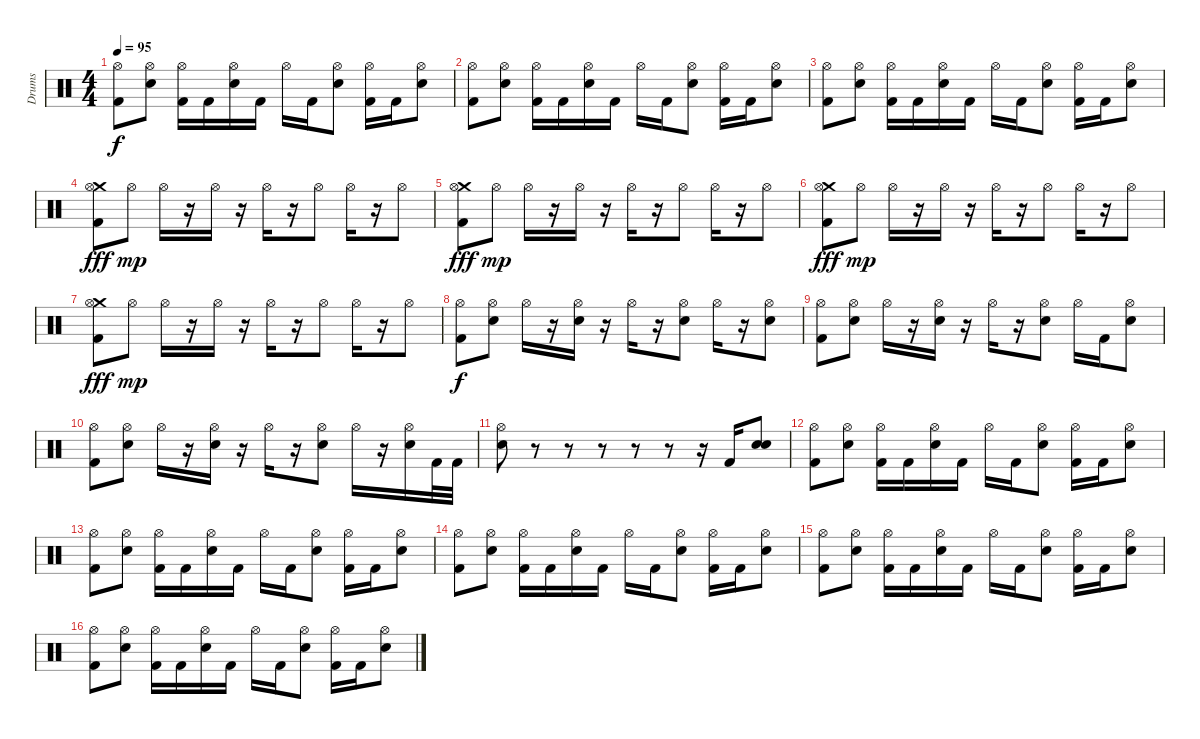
\track ("Drums" "Drums") {instrument percussion}
\staff {score}
\articulation defaults
\ts (4 4)
\tempo 95
\clef neutral
\ks c
("Hi-Hat (open)" "Kick (hit) 2").8{dy f} ("Hi-Hat (open)" "Snare (hit) 2").8 ("Hi-Hat (open)" "Kick (hit) 2").16 "Kick (hit) 2".16 ("Hi-Hat (open)" "Snare (hit) 2").16 "Kick (hit) 2".16 "Hi-Hat (open)".16 "Kick (hit) 2".16 ("Hi-Hat (open)" "Snare (hit) 2").8 ("Hi-Hat (open)" "Kick (hit) 2").16 "Kick (hit) 2".16 ("Hi-Hat (open)" "Snare (hit) 2").8 |
("Hi-Hat (open)" "Kick (hit) 2").8 ("Hi-Hat (open)" "Snare (hit) 2").8 ("Hi-Hat (open)" "Kick (hit) 2").16 "Kick (hit) 2".16 ("Hi-Hat (open)" "Snare (hit) 2").16 "Kick (hit) 2".16 "Hi-Hat (open)".16 "Kick (hit) 2".16 ("Hi-Hat (open)" "Snare (hit) 2").8 ("Hi-Hat (open)" "Kick (hit) 2").16 "Kick (hit) 2".16 ("Hi-Hat (open)" "Snare (hit) 2").8 |
("Hi-Hat (open)" "Kick (hit) 2").8 ("Hi-Hat (open)" "Snare (hit) 2").8 ("Hi-Hat (open)" "Kick (hit) 2").16 "Kick (hit) 2".16 ("Hi-Hat (open)" "Snare (hit) 2").16 "Kick (hit) 2".16 "Hi-Hat (open)".16 "Kick (hit) 2".16 ("Hi-Hat (open)" "Snare (hit) 2").8 ("Hi-Hat (open)" "Kick (hit) 2").16 "Kick (hit) 2".16 ("Hi-Hat (open)" "Snare (hit) 2").8 |
("Crash medium (hit)" "Hi-Hat (open)" "Kick (hit) 2").8{dy fff} "Hi-Hat (open)".8{dy mp} "Hi-Hat (open)".16 r.16 "Hi-Hat (open)".16 r.16 "Hi-Hat (open)".16 r.16 "Hi-Hat (open)".8 "Hi-Hat (open)".16 r.16 "Hi-Hat (open)".8 |
("Crash medium (hit)" "Hi-Hat (open)" "Kick (hit) 2").8{dy fff} "Hi-Hat (open)".8{dy mp} "Hi-Hat (open)".16 r.16 "Hi-Hat (open)".16 r.16 "Hi-Hat (open)".16 r.16 "Hi-Hat (open)".8 "Hi-Hat (open)".16 r.16 "Hi-Hat (open)".8 |
("Crash medium (hit)" "Hi-Hat (open)" "Kick (hit) 2").8{dy fff} "Hi-Hat (open)".8{dy mp} "Hi-Hat (open)".16 r.16 "Hi-Hat (open)".16 r.16 "Hi-Hat (open)".16 r.16 "Hi-Hat (open)".8 "Hi-Hat (open)".16 r.16 "Hi-Hat (open)".8 |
("Crash medium (hit)" "Hi-Hat (open)" "Kick (hit) 2").8{dy fff} "Hi-Hat (open)".8{dy mp} "Hi-Hat (open)".16 r.16 "Hi-Hat (open)".16 r.16 "Hi-Hat (open)".16 r.16 "Hi-Hat (open)".8 "Hi-Hat (open)".16 r.16 "Hi-Hat (open)".8 |
("Hi-Hat (open)" "Kick (hit) 2").8{dy f} ("Hi-Hat (open)" "Snare (hit) 2").8 "Hi-Hat (open)".16 r.16 ("Hi-Hat (open)" "Snare (hit) 2").16 r.16 "Hi-Hat (open)".16 r.16 ("Hi-Hat (open)" "Snare (hit) 2").8 "Hi-Hat (open)".16 r.16 ("Hi-Hat (open)" "Snare (hit) 2").8 |
("Hi-Hat (open)" "Kick (hit) 2").8 ("Hi-Hat (open)" "Snare (hit) 2").8 "Hi-Hat (open)".16 r.16 ("Hi-Hat (open)" "Snare (hit) 2").16 r.16 "Hi-Hat (open)".16 r.16 ("Hi-Hat (open)" "Snare (hit) 2").8 "Hi-Hat (open)".16 "Kick (hit) 2".16 ("Hi-Hat (open)" "Snare (hit) 2").8 |
("Hi-Hat (open)" "Kick (hit) 2").8 ("Hi-Hat (open)" "Snare (hit) 2").8 "Hi-Hat (open)".16 r.16 ("Hi-Hat (open)" "Snare (hit) 2").16 r.16 "Hi-Hat (open)".16 r.16 ("Hi-Hat (open)" "Snare (hit) 2").8 "Hi-Hat (open)".16 r.16 ("Hi-Hat (open)" "Snare (hit) 2").16 "Kick (hit) 2".32 "Kick (hit) 2".32 |
("Snare (hit) 2" "Hi-Hat (open)").8 r.8 r.8 r.8 r.8 r.8 r.16 "Kick (hit) 2".16 ("Snare (hit) 2" "Snare (hit) 2").8{bd 120} |
("Hi-Hat (open)" "Kick (hit) 2").8 ("Hi-Hat (open)" "Snare (hit) 2").8 ("Hi-Hat (open)" "Kick (hit) 2").16 "Kick (hit) 2".16 ("Hi-Hat (open)" "Snare (hit) 2").16 "Kick (hit) 2".16 "Hi-Hat (open)".16 "Kick (hit) 2".16 ("Hi-Hat (open)" "Snare (hit) 2").8 ("Hi-Hat (open)" "Kick (hit) 2").16 "Kick (hit) 2".16 ("Hi-Hat (open)" "Snare (hit) 2").8 |
("Hi-Hat (open)" "Kick (hit) 2").8 ("Hi-Hat (open)" "Snare (hit) 2").8 ("Hi-Hat (open)" "Kick (hit) 2").16 "Kick (hit) 2".16 ("Hi-Hat (open)" "Snare (hit) 2").16 "Kick (hit) 2".16 "Hi-Hat (open)".16 "Kick (hit) 2".16 ("Hi-Hat (open)" "Snare (hit) 2").8 ("Hi-Hat (open)" "Kick (hit) 2").16 "Kick (hit) 2".16 ("Hi-Hat (open)" "Snare (hit) 2").8 |
("Hi-Hat (open)" "Kick (hit) 2").8 ("Hi-Hat (open)" "Snare (hit) 2").8 ("Hi-Hat (open)" "Kick (hit) 2").16 "Kick (hit) 2".16 ("Hi-Hat (open)" "Snare (hit) 2").16 "Kick (hit) 2".16 "Hi-Hat (open)".16 "Kick (hit) 2".16 ("Hi-Hat (open)" "Snare (hit) 2").8 ("Hi-Hat (open)" "Kick (hit) 2").16 "Kick (hit) 2".16 ("Hi-Hat (open)" "Snare (hit) 2").8 |
("Hi-Hat (open)" "Kick (hit) 2").8 ("Hi-Hat (open)" "Snare (hit) 2").8 ("Hi-Hat (open)" "Kick (hit) 2").16 "Kick (hit) 2".16 ("Hi-Hat (open)" "Snare (hit) 2").16 "Kick (hit) 2".16 "Hi-Hat (open)".16 "Kick (hit) 2".16 ("Hi-Hat (open)" "Snare (hit) 2").8 ("Hi-Hat (open)" "Kick (hit) 2").16 "Kick (hit) 2".16 ("Hi-Hat (open)" "Snare (hit) 2").8 |
("Hi-Hat (open)" "Kick (hit) 2").8 ("Hi-Hat (open)" "Snare (hit) 2").8 ("Hi-Hat (open)" "Kick (hit) 2").16 "Kick (hit) 2".16 ("Hi-Hat (open)" "Snare (hit) 2").16 "Kick (hit) 2".16 "Hi-Hat (open)".16 "Kick (hit) 2".16 ("Hi-Hat (open)" "Snare (hit) 2").8 ("Hi-Hat (open)" "Kick (hit) 2").16 "Kick (hit) 2".16 ("Hi-Hat (open)" "Snare (hit) 2").8
